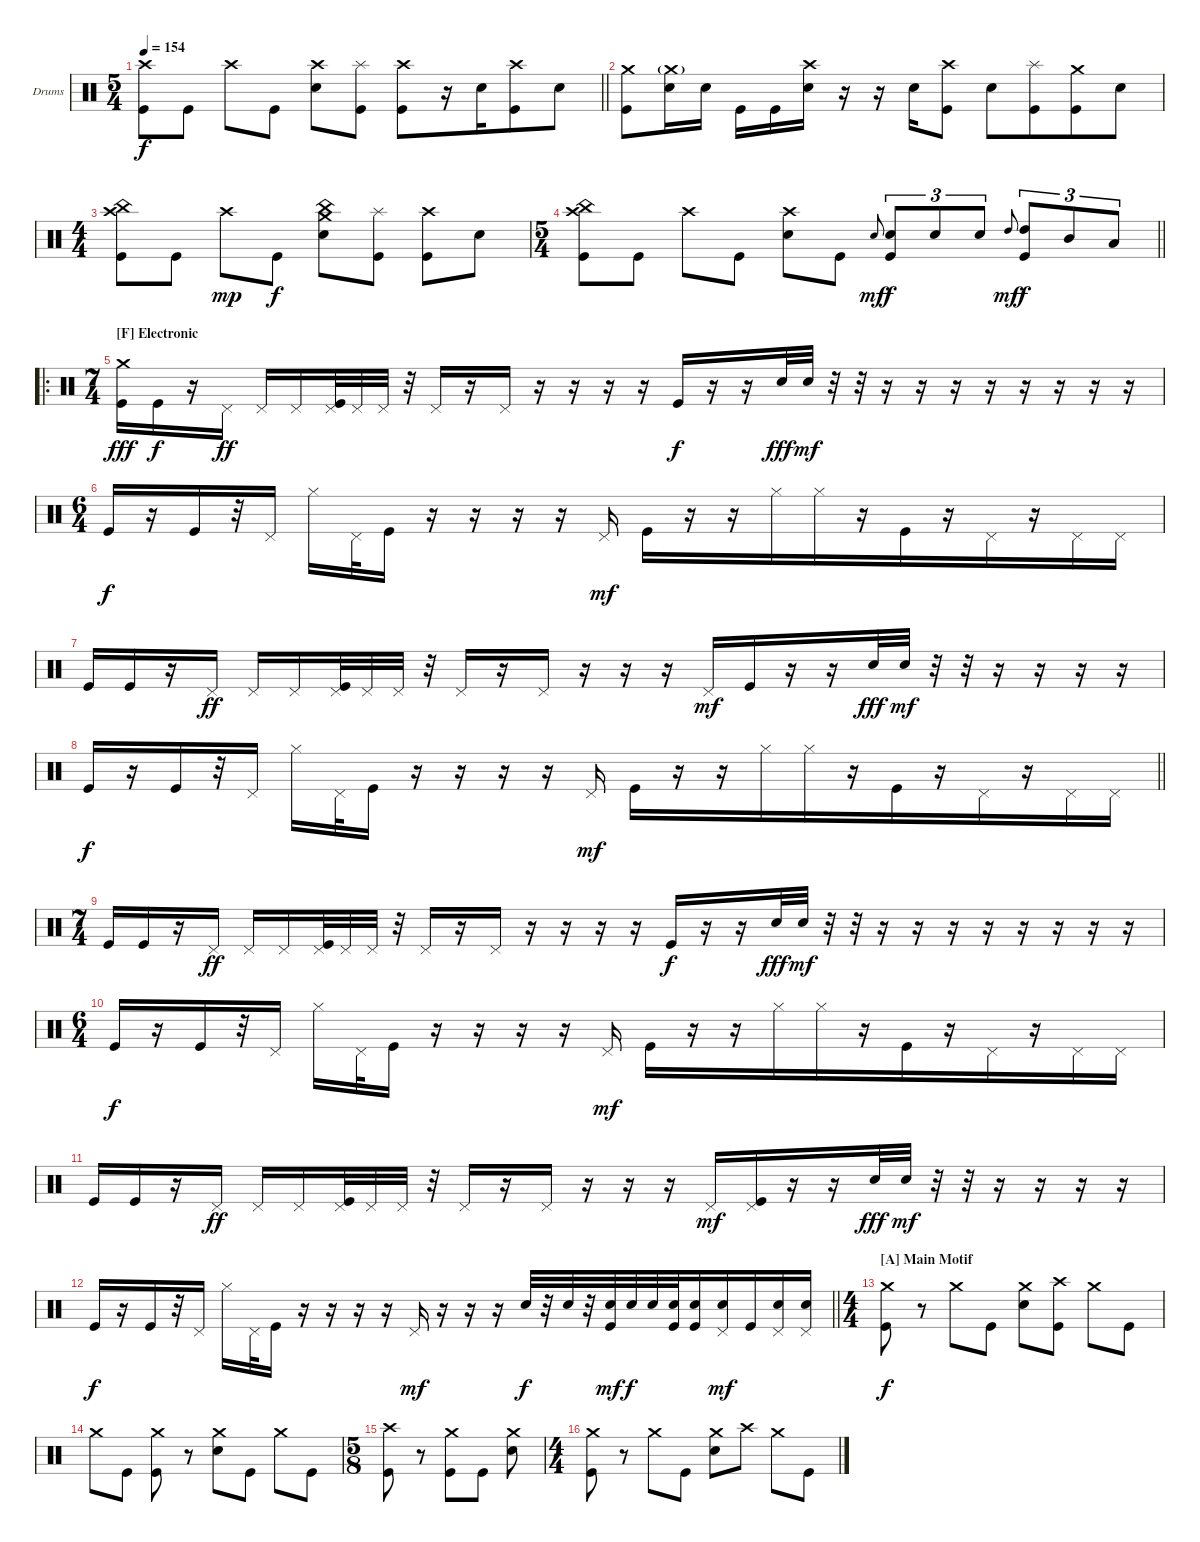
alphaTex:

\bracketExtendMode groupsimilarinstruments
\firstSystemTrackNameOrientation horizontal
\otherSystemsTrackNameOrientation horizontal
\track ("Navene Koperweis" "Drums") {instrument percussion}
\staff {score}
\articulation defaults
\ts (5 4)
\beaming (8 2 2 2 4)
\tempo 154
\clef neutral
\barLineRight lightlight
\ks c
("Crash high (hit)" "Kick (hit)").8{dy f} "Kick (hit)".8 "Crash high (hit)".8 "Kick (hit)".8 ("Crash high (hit)" "Snare (hit) 2").8 ("Splash (hit)" "Kick (hit)").8 ("Crash high (hit)" "Kick (hit)").8 r.16 "Snare (hit) 2".16 ("Crash high (hit)" "Kick (hit)").8 "Snare (hit) 2".8 |
\section ("" "")
("Crash medium (hit)" "Kick (hit)").8 ("Crash medium (hit)"{g} "Snare (hit) 2").16 "Snare (hit) 2".16 "Kick (hit)".16 "Kick (hit)".16 ("Crash high (hit)" "Snare (hit) 2").16 r.16 r.16 "Snare (hit) 2".16 ("Crash high (hit)" "Kick (hit)").8 "Snare (hit) 2".8 ("Splash (hit)" "Kick (hit)").8 ("Crash medium (hit)" "Kick (hit)").8 "Snare (hit) 2".8 |
\ts (4 4)
\beaming (8 2 2 2 2)
("Crash high (hit)" "China (hit)" "Kick (hit)").8 "Kick (hit)".8 "Crash high (hit)".8{dy mp} "Kick (hit)".8{dy f} ("Crash medium (hit)" "China (hit)" "Snare (hit) 2").8 ("Splash (hit)" "Kick (hit)").8 ("Crash high (hit)" "Kick (hit)").8 "Snare (hit) 2".8 |
\ts (5 4)
\beaming (8 2 2 2 4)
\barLineRight lightlight
("Crash high (hit)" "China (hit)" "Kick (hit)").8 "Kick (hit)".8 "Crash high (hit)".8 "Kick (hit)".8 ("Crash high (hit)" "Snare (hit) 2").8 "Kick (hit)".8 "Snare (hit) 2".8{gr onbeat dy mf} ("Snare (hit) 2" "Kick (hit)").8{tu (3 2) dy f} "Snare (hit) 2".8{tu (3 2)} "Snare (hit) 2".8{tu (3 2)} "High Tom (hit)".8{gr onbeat dy mf} ("High Tom (hit)" "Kick (hit)").8{tu (3 2) dy f} "Mid Tom (hit)".8{tu (3 2)} "Low Tom (hit)".8{tu (3 2)} |
\ro
\ts (7 4)
\beaming (8 2 2 2 8)
\section ("F" "Electronic")
("Crash medium (hit)" "Kick (hit)").16{dy fff} "Kick (hit)".16{dy f} r.16 "Pedal Hi-Hat (hit)".16{dy ff} "Pedal Hi-Hat (hit)".16 "Pedal Hi-Hat (hit)".16 ("Pedal Hi-Hat (hit)" "Kick (hit)").32 "Pedal Hi-Hat (hit)".32 "Pedal Hi-Hat (hit)".32 r.32 "Pedal Hi-Hat (hit)".16 r.16 "Pedal Hi-Hat (hit)".16 r.16 r.16 r.16 r.16 "Kick (hit)".16{dy f} r.16 r.16 "Snare (hit) 2".32{dy fff} "Snare (hit) 2".32{dy mf} r.32 r.32 r.16 r.16 r.16 r.16 r.16 r.16 r.16 r.16 |
\ts (6 4)
\beaming (8 2 2 2 6)
"Kick (hit)".16{dy f} r.16 "Kick (hit)".16 r.32 "Pedal Hi-Hat (hit)".16 "Hi-Hat (closed)".16 "Pedal Hi-Hat (hit)".32 "Kick (hit)".16 r.16 r.16 r.16 r.16 "Pedal Hi-Hat (hit)".16{dy mf} "Kick (hit)".16 r.16 r.16 "Hi-Hat (closed)".16 "Hi-Hat (closed)".16 r.16 "Kick (hit)".16 r.16 "Pedal Hi-Hat (hit)".16 r.16 "Pedal Hi-Hat (hit)".16 "Pedal Hi-Hat (hit)".16 |
"Kick (hit)".16 "Kick (hit)".16 r.16 "Pedal Hi-Hat (hit)".16{dy ff} "Pedal Hi-Hat (hit)".16 "Pedal Hi-Hat (hit)".16 ("Pedal Hi-Hat (hit)" "Kick (hit)").32 "Pedal Hi-Hat (hit)".32 "Pedal Hi-Hat (hit)".32 r.32 "Pedal Hi-Hat (hit)".16 r.16 "Pedal Hi-Hat (hit)".16 r.16 r.16 r.16 "Pedal Hi-Hat (hit)".16{dy mf} "Kick (hit)".16 r.16 r.16 "Snare (hit) 2".32{dy fff} "Snare (hit) 2".32{dy mf} r.32 r.32 r.16 r.16 r.16 r.16 |
\barLineRight lightlight "Kick (hit)".16{dy f}
r.16 "Kick (hit)".16 r.32 "Pedal Hi-Hat (hit)".16 "Hi-Hat (closed)".16 "Pedal Hi-Hat (hit)".32 "Kick (hit)".16 r.16 r.16 r.16 r.16 "Pedal Hi-Hat (hit)".16{dy mf} "Kick (hit)".16 r.16 r.16 "Hi-Hat (closed)".16 "Hi-Hat (closed)".16 r.16 "Kick (hit)".16 r.16 "Pedal Hi-Hat (hit)".16 r.16 "Pedal Hi-Hat (hit)".16 "Pedal Hi-Hat (hit)".16 |
\ts (7 4)
\beaming (8 2 2 2 8)
"Kick (hit)".16 "Kick (hit)".16 r.16 "Pedal Hi-Hat (hit)".16{dy ff} "Pedal Hi-Hat (hit)".16 "Pedal Hi-Hat (hit)".16 ("Pedal Hi-Hat (hit)" "Kick (hit)").32 "Pedal Hi-Hat (hit)".32 "Pedal Hi-Hat (hit)".32 r.32 "Pedal Hi-Hat (hit)".16 r.16 "Pedal Hi-Hat (hit)".16 r.16 r.16 r.16 r.16 "Kick (hit)".16{dy f} r.16 r.16 "Snare (hit) 2".32{dy fff} "Snare (hit) 2".32{dy mf} r.32 r.32 r.16 r.16 r.16 r.16 r.16 r.16 r.16 r.16 |
\ts (6 4)
\beaming (8 2 2 2 6)
"Kick (hit)".16{dy f} r.16 "Kick (hit)".16 r.32 "Pedal Hi-Hat (hit)".16 "Hi-Hat (closed)".16 "Pedal Hi-Hat (hit)".32 "Kick (hit)".16 r.16 r.16 r.16 r.16 "Pedal Hi-Hat (hit)".16{dy mf} "Kick (hit)".16 r.16 r.16 "Hi-Hat (closed)".16 "Hi-Hat (closed)".16 r.16 "Kick (hit)".16 r.16 "Pedal Hi-Hat (hit)".16 r.16 "Pedal Hi-Hat (hit)".16 "Pedal Hi-Hat (hit)".16 |
"Kick (hit)".16 "Kick (hit)".16 r.16 "Pedal Hi-Hat (hit)".16{dy ff} "Pedal Hi-Hat (hit)".16 "Pedal Hi-Hat (hit)".16 ("Pedal Hi-Hat (hit)" "Kick (hit)").32 "Pedal Hi-Hat (hit)".32 "Pedal Hi-Hat (hit)".32 r.32 "Pedal Hi-Hat (hit)".16 r.16 "Pedal Hi-Hat (hit)".16 r.16 r.16 r.16 "Pedal Hi-Hat (hit)".16{dy mf} ("Pedal Hi-Hat (hit)" "Kick (hit)").16 r.16 r.16 "Snare (hit) 2".32{dy fff} "Snare (hit) 2".32{dy mf} r.32 r.32 r.16 r.16 r.16 r.16 |
\barLineRight lightlight "Kick (hit)".16{dy f}
r.16 "Kick (hit)".16 r.32 "Pedal Hi-Hat (hit)".16 "Hi-Hat (closed)".16 "Pedal Hi-Hat (hit)".32 "Kick (hit)".16 r.16 r.16 r.16 r.16 "Pedal Hi-Hat (hit)".16{dy mf} r.16 r.16 r.16 "Snare (hit) 2".32{dy f} r.32 "Snare (hit) 2".32 r.32 ("Snare (hit) 2" "Kick (hit)").32{dy mf} "Snare (hit) 2".32{dy f} "Snare (hit) 2".32 ("Snare (hit) 2" "Kick (hit)").32 ("Snare (hit) 2" "Kick (hit)").16 ("Pedal Hi-Hat (hit)" "Snare (hit) 2").16{dy mf} "Kick (hit)".16 ("Pedal Hi-Hat (hit)" "Snare (hit) 2").16 ("Pedal Hi-Hat (hit)" "Snare (hit) 2").16 |
\ts (4 4)
\beaming (8 2 2 2 2)
\section ("A" "Main Motif")
("Crash medium (hit)" "Kick (hit)").8{dy f} r.8 "Crash medium (hit)".8 "Kick (hit)".8 ("Crash medium (hit)" "Snare (hit) 2").8 ("Crash high (hit)" "Kick (hit)").8 "Crash medium (hit)".8 "Kick (hit)".8 |
"Crash medium (hit)".8 "Kick (hit)".8 ("Crash medium (hit)" "Kick (hit)").8 r.8 ("Crash medium (hit)" "Snare (hit) 2").8 "Kick (hit)".8 "Crash medium (hit)".8 "Kick (hit)".8 |
\ts (5 8)
\beaming (8 2 2 2 2)
("Crash high (hit)" "Kick (hit)").8 r.8 ("Crash medium (hit)" "Kick (hit)").8 "Kick (hit)".8 ("Crash medium (hit)" "Snare (hit) 2").8 |
\ts (4 4)
\beaming (8 2 2 2 2)
("Crash medium (hit)" "Kick (hit)").8 r.8 "Crash medium (hit)".8 "Kick (hit)".8 ("Crash medium (hit)" "Snare (hit) 2").8 "Crash high (hit)".8 "Crash medium (hit)".8 "Kick (hit)".8
